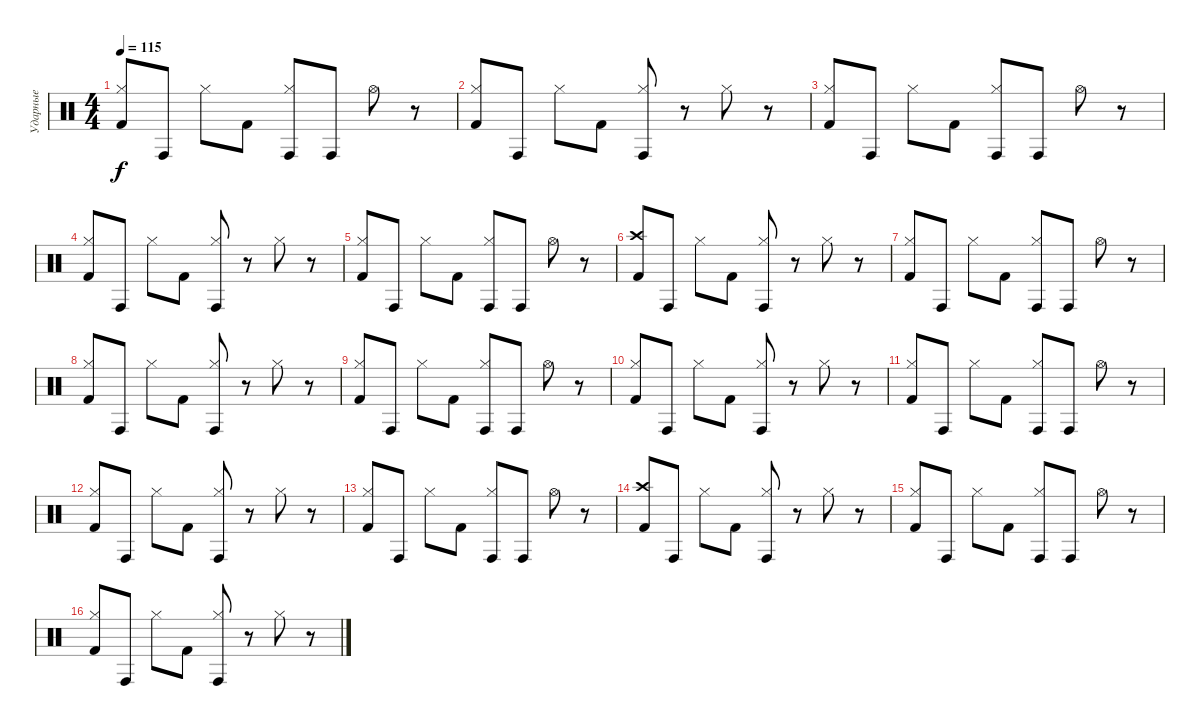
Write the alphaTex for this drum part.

\track ("Ударные" "Ударные") {instrument percussion}
\staff {score}
\articulation defaults
\ts (4 4)
\tempo 115
\clef neutral
\ks c
("Hi-Hat (closed)" "Kick (hit) 2").8{dy f} "Conga high (hit)".8 "Hi-Hat (closed)".8 "Kick (hit) 2".8 ("Hi-Hat (closed)" "Conga high (hit)").8 "Conga high (hit)".8 "Hi-Hat (open)".8 r.8 |
("Hi-Hat (closed)" "Kick (hit) 2").8 "Conga high (hit)".8 "Hi-Hat (closed)".8 "Kick (hit) 2".8 ("Hi-Hat (closed)" "Conga high (hit)").8 r.8 "Hi-Hat (closed)".8 r.8 |
("Hi-Hat (closed)" "Kick (hit) 2").8 "Conga high (hit)".8 "Hi-Hat (closed)".8 "Kick (hit) 2".8 ("Hi-Hat (closed)" "Conga high (hit)").8 "Conga high (hit)".8 "Hi-Hat (open)".8 r.8 |
("Hi-Hat (closed)" "Kick (hit) 2").8 "Conga high (hit)".8 "Hi-Hat (closed)".8 "Kick (hit) 2".8 ("Hi-Hat (closed)" "Conga high (hit)").8 r.8 "Hi-Hat (closed)".8 r.8 |
("Hi-Hat (closed)" "Kick (hit) 2").8 "Conga high (hit)".8 "Hi-Hat (closed)".8 "Kick (hit) 2".8 ("Hi-Hat (closed)" "Conga high (hit)").8 "Conga high (hit)".8 "Hi-Hat (open)".8 r.8 |
("Crash high (hit)" "Kick (hit) 2").8 "Conga high (hit)".8 "Hi-Hat (closed)".8 "Kick (hit) 2".8 ("Hi-Hat (closed)" "Conga high (hit)").8 r.8 "Hi-Hat (closed)".8 r.8 |
("Hi-Hat (closed)" "Kick (hit) 2").8 "Conga high (hit)".8 "Hi-Hat (closed)".8 "Kick (hit) 2".8 ("Hi-Hat (closed)" "Conga high (hit)").8 "Conga high (hit)".8 "Hi-Hat (open)".8 r.8 |
("Hi-Hat (closed)" "Kick (hit) 2").8 "Conga high (hit)".8 "Hi-Hat (closed)".8 "Kick (hit) 2".8 ("Hi-Hat (closed)" "Conga high (hit)").8 r.8 "Hi-Hat (closed)".8 r.8 |
("Hi-Hat (closed)" "Kick (hit) 2").8 "Conga high (hit)".8 "Hi-Hat (closed)".8 "Kick (hit) 2".8 ("Hi-Hat (closed)" "Conga high (hit)").8 "Conga high (hit)".8 "Hi-Hat (open)".8 r.8 |
("Hi-Hat (closed)" "Kick (hit) 2").8 "Conga high (hit)".8 "Hi-Hat (closed)".8 "Kick (hit) 2".8 ("Hi-Hat (closed)" "Conga high (hit)").8 r.8 "Hi-Hat (closed)".8 r.8 |
("Hi-Hat (closed)" "Kick (hit) 2").8 "Conga high (hit)".8 "Hi-Hat (closed)".8 "Kick (hit) 2".8 ("Hi-Hat (closed)" "Conga high (hit)").8 "Conga high (hit)".8 "Hi-Hat (open)".8 r.8 |
("Hi-Hat (closed)" "Kick (hit) 2").8 "Conga high (hit)".8 "Hi-Hat (closed)".8 "Kick (hit) 2".8 ("Hi-Hat (closed)" "Conga high (hit)").8 r.8 "Hi-Hat (closed)".8 r.8 |
("Hi-Hat (closed)" "Kick (hit) 2").8 "Conga high (hit)".8 "Hi-Hat (closed)".8 "Kick (hit) 2".8 ("Hi-Hat (closed)" "Conga high (hit)").8 "Conga high (hit)".8 "Hi-Hat (open)".8 r.8 |
("Crash high (hit)" "Kick (hit) 2").8 "Conga high (hit)".8 "Hi-Hat (closed)".8 "Kick (hit) 2".8 ("Hi-Hat (closed)" "Conga high (hit)").8 r.8 "Hi-Hat (closed)".8 r.8 |
("Hi-Hat (closed)" "Kick (hit) 2").8 "Conga high (hit)".8 "Hi-Hat (closed)".8 "Kick (hit) 2".8 ("Hi-Hat (closed)" "Conga high (hit)").8 "Conga high (hit)".8 "Hi-Hat (open)".8 r.8 |
("Hi-Hat (closed)" "Kick (hit) 2").8 "Conga high (hit)".8 "Hi-Hat (closed)".8 "Kick (hit) 2".8 ("Hi-Hat (closed)" "Conga high (hit)").8 r.8 "Hi-Hat (closed)".8 r.8
